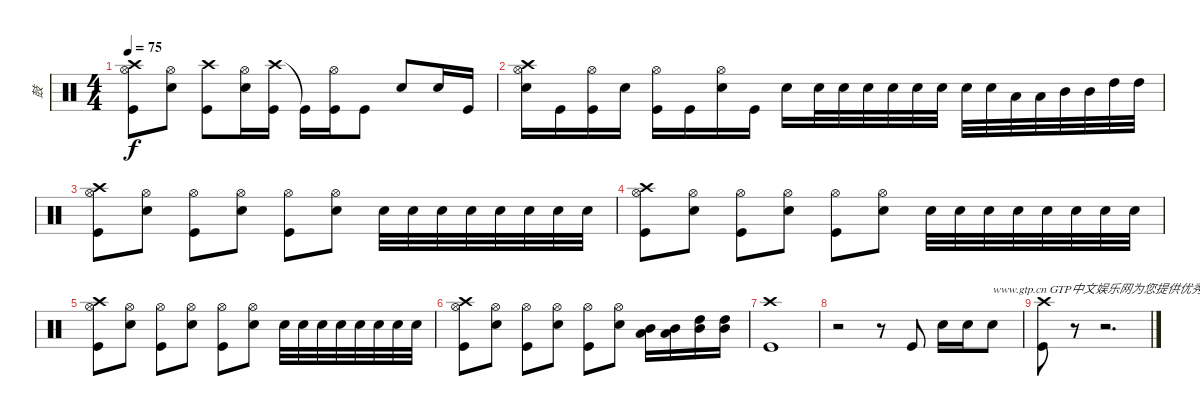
\track ("鼓" "鼓") {instrument percussion}
\staff {score}
\articulation defaults
\ts (4 4)
\tempo 75
\clef neutral
\ks c
("Crash high (hit)" "Hi-Hat (open)" "Kick (hit)").8{dy f} ("Hi-Hat (open)" "Electric Snare (hit)").8 ("Crash high (hit)" "Kick (hit)").8 ("Hi-Hat (open)" "Electric Snare (hit)").16 ("Crash high (hit)" "Kick (hit)").16 "Kick (hit)"{t}.16 ("Hi-Hat (open)" "Kick (hit)").16 "Kick (hit)".8 "Electric Snare (hit)".8 "Electric Snare (hit)".16 "Kick (hit)".16 |
("Crash high (hit)" "Hi-Hat (open)" "Electric Snare (hit)").16 "Kick (hit)".16 ("Hi-Hat (open)" "Kick (hit)").16 "Electric Snare (hit)".16 ("Hi-Hat (open)" "Kick (hit)").16 "Kick (hit)".16 ("Hi-Hat (open)" "Electric Snare (hit)").16 "Kick (hit)".16 "Electric Snare (hit)".16 "Electric Snare (hit)".32 "Electric Snare (hit)".32 "Electric Snare (hit)".32 "Electric Snare (hit)".32 "Electric Snare (hit)".32 "Electric Snare (hit)".32 "Electric Snare (hit)".32 "Electric Snare (hit)".32 "Low Tom (hit)".32 "Low Tom (hit)".32 "Mid Tom (hit)".32 "Mid Tom (hit)".32 "High Tom (hit)".32 "High Tom (hit)".32 |
("Crash high (hit)" "Hi-Hat (open)" "Kick (hit)").8 ("Hi-Hat (open)" "Electric Snare (hit)").8 ("Hi-Hat (open)" "Kick (hit)").8 ("Hi-Hat (open)" "Electric Snare (hit)").8 ("Hi-Hat (open)" "Kick (hit)").8 ("Hi-Hat (open)" "Electric Snare (hit)").8 "Electric Snare (hit)".32 "Electric Snare (hit)".32 "Electric Snare (hit)".32 "Electric Snare (hit)".32 "Electric Snare (hit)".32 "Electric Snare (hit)".32 "Electric Snare (hit)".32 "Electric Snare (hit)".32 |
("Crash high (hit)" "Hi-Hat (open)" "Kick (hit)").8 ("Hi-Hat (open)" "Electric Snare (hit)").8 ("Hi-Hat (open)" "Kick (hit)").8 ("Hi-Hat (open)" "Electric Snare (hit)").8 ("Hi-Hat (open)" "Kick (hit)").8 ("Hi-Hat (open)" "Electric Snare (hit)").8 "Electric Snare (hit)".32 "Electric Snare (hit)".32 "Electric Snare (hit)".32 "Electric Snare (hit)".32 "Electric Snare (hit)".32 "Electric Snare (hit)".32 "Electric Snare (hit)".32 "Electric Snare (hit)".32 |
("Crash high (hit)" "Hi-Hat (open)" "Kick (hit)").8 ("Hi-Hat (open)" "Electric Snare (hit)").8 ("Hi-Hat (open)" "Kick (hit)").8 ("Hi-Hat (open)" "Electric Snare (hit)").8 ("Hi-Hat (open)" "Kick (hit)").8 ("Hi-Hat (open)" "Electric Snare (hit)").8 "Electric Snare (hit)".32 "Electric Snare (hit)".32 "Electric Snare (hit)".32 "Electric Snare (hit)".32 "Electric Snare (hit)".32 "Electric Snare (hit)".32 "Electric Snare (hit)".32 "Electric Snare (hit)".32 |
("Crash high (hit)" "Hi-Hat (open)" "Kick (hit)").8 ("Hi-Hat (open)" "Electric Snare (hit)").8 ("Hi-Hat (open)" "Kick (hit)").8 ("Hi-Hat (open)" "Electric Snare (hit)").8 ("Hi-Hat (open)" "Kick (hit)").8 ("Hi-Hat (open)" "Electric Snare (hit)").8 ("Mid Tom (hit)" "Low Tom (hit)").16 ("Mid Tom (hit)" "Low Tom (hit)").16 ("High Tom (hit)" "Mid Tom (hit)").16 ("High Tom (hit)" "Mid Tom (hit)").16 |
("Crash high (hit)" "Kick (hit)").1 |
r.2 r.8 "Kick (hit)".8 "Electric Snare (hit)".16 "Electric Snare (hit)".16 "Electric Snare (hit)".8{txt "www.gtp.cn GTP中文娱乐网为您提供优秀的谱子"} |
("Crash high (hit)" "Kick (hit)").8 r.8 r.2{d}
